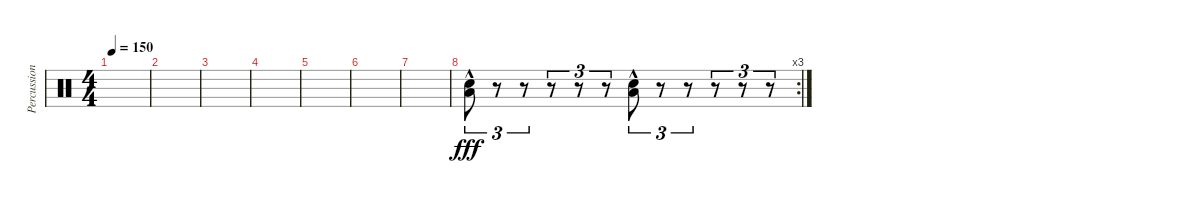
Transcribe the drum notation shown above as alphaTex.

\track ("Percussion" "Percussion") {instrument percussion}
\staff {score}
\articulation defaults
\ts (4 4)
\tempo 150
\clef neutral
\ks c
|
|
|
|
|
|
|
\rc 3
("Low Floor Tom (hit)"{hac} "Snare (hit) 2"{hac}).8{tu (3 2) dy fff} r.8{tu (3 2)} r.8{tu (3 2)} r.8{tu (3 2)} r.8{tu (3 2)} r.8{tu (3 2)} ("Low Floor Tom (hit)"{hac} "Snare (hit) 2"{hac}).8{tu (3 2)} r.8{tu (3 2)} r.8{tu (3 2)} r.8{tu (3 2)} r.8{tu (3 2)} r.8{tu (3 2)}
